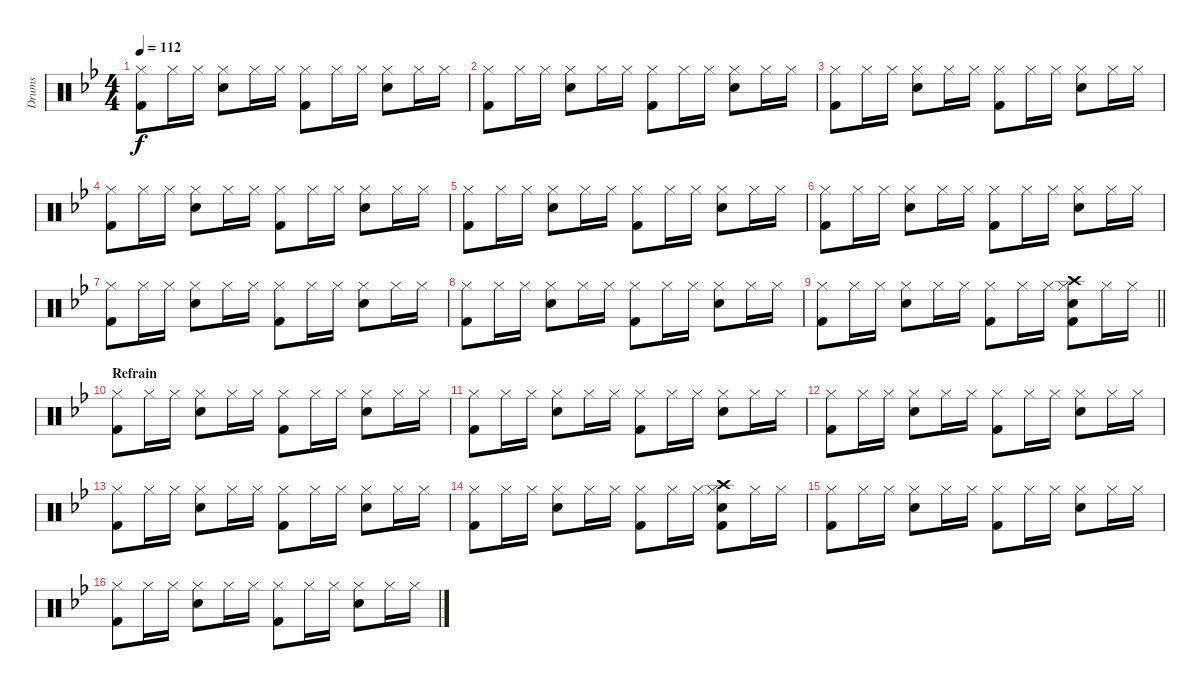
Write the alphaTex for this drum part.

\track ("Drums" "Drums") {instrument percussion}
\staff {score}
\articulation defaults
\ts (4 4)
\tempo 112
\clef neutral
\ks bb
("Hi-Hat (closed)" "Kick (hit) 2").8{dy f} "Hi-Hat (closed)".16 "Hi-Hat (closed)".16 ("Snare (hit) 2" "Hi-Hat (closed)").8 "Hi-Hat (closed)".16 "Hi-Hat (closed)".16 ("Hi-Hat (closed)" "Kick (hit) 2").8 "Hi-Hat (closed)".16 "Hi-Hat (closed)".16 ("Snare (hit) 2" "Hi-Hat (closed)").8 "Hi-Hat (closed)".16 "Hi-Hat (closed)".16 |
("Hi-Hat (closed)" "Kick (hit) 2").8 "Hi-Hat (closed)".16 "Hi-Hat (closed)".16 ("Snare (hit) 2" "Hi-Hat (closed)").8 "Hi-Hat (closed)".16 "Hi-Hat (closed)".16 ("Hi-Hat (closed)" "Kick (hit) 2").8 "Hi-Hat (closed)".16 "Hi-Hat (closed)".16 ("Snare (hit) 2" "Hi-Hat (closed)").8 "Hi-Hat (closed)".16 "Hi-Hat (closed)".16 |
("Hi-Hat (closed)" "Kick (hit) 2").8 "Hi-Hat (closed)".16 "Hi-Hat (closed)".16 ("Snare (hit) 2" "Hi-Hat (closed)").8 "Hi-Hat (closed)".16 "Hi-Hat (closed)".16 ("Hi-Hat (closed)" "Kick (hit) 2").8 "Hi-Hat (closed)".16 "Hi-Hat (closed)".16 ("Snare (hit) 2" "Hi-Hat (closed)").8 "Hi-Hat (closed)".16 "Hi-Hat (closed)".16 |
("Hi-Hat (closed)" "Kick (hit) 2").8 "Hi-Hat (closed)".16 "Hi-Hat (closed)".16 ("Snare (hit) 2" "Hi-Hat (closed)").8 "Hi-Hat (closed)".16 "Hi-Hat (closed)".16 ("Hi-Hat (closed)" "Kick (hit) 2").8 "Hi-Hat (closed)".16 "Hi-Hat (closed)".16 ("Snare (hit) 2" "Hi-Hat (closed)").8 "Hi-Hat (closed)".16 "Hi-Hat (closed)".16 |
("Hi-Hat (closed)" "Kick (hit) 2").8 "Hi-Hat (closed)".16 "Hi-Hat (closed)".16 ("Snare (hit) 2" "Hi-Hat (closed)").8 "Hi-Hat (closed)".16 "Hi-Hat (closed)".16 ("Hi-Hat (closed)" "Kick (hit) 2").8 "Hi-Hat (closed)".16 "Hi-Hat (closed)".16 ("Snare (hit) 2" "Hi-Hat (closed)").8 "Hi-Hat (closed)".16 "Hi-Hat (closed)".16 |
("Hi-Hat (closed)" "Kick (hit) 2").8 "Hi-Hat (closed)".16 "Hi-Hat (closed)".16 ("Snare (hit) 2" "Hi-Hat (closed)").8 "Hi-Hat (closed)".16 "Hi-Hat (closed)".16 ("Hi-Hat (closed)" "Kick (hit) 2").8 "Hi-Hat (closed)".16 "Hi-Hat (closed)".16 ("Snare (hit) 2" "Hi-Hat (closed)").8 "Hi-Hat (closed)".16 "Hi-Hat (closed)".16 |
("Hi-Hat (closed)" "Kick (hit) 2").8 "Hi-Hat (closed)".16 "Hi-Hat (closed)".16 ("Snare (hit) 2" "Hi-Hat (closed)").8 "Hi-Hat (closed)".16 "Hi-Hat (closed)".16 ("Hi-Hat (closed)" "Kick (hit) 2").8 "Hi-Hat (closed)".16 "Hi-Hat (closed)".16 ("Snare (hit) 2" "Hi-Hat (closed)").8 "Hi-Hat (closed)".16 "Hi-Hat (closed)".16 |
("Hi-Hat (closed)" "Kick (hit) 2").8 "Hi-Hat (closed)".16 "Hi-Hat (closed)".16 ("Snare (hit) 2" "Hi-Hat (closed)").8 "Hi-Hat (closed)".16 "Hi-Hat (closed)".16 ("Hi-Hat (closed)" "Kick (hit) 2").8 "Hi-Hat (closed)".16 "Hi-Hat (closed)".16 ("Snare (hit) 2" "Hi-Hat (closed)").8 "Hi-Hat (closed)".16 "Hi-Hat (closed)".16 |
\barLineRight lightlight
("Hi-Hat (closed)" "Kick (hit) 2").8 "Hi-Hat (closed)".16 "Hi-Hat (closed)".16 ("Snare (hit) 2" "Hi-Hat (closed)").8 "Hi-Hat (closed)".16 "Hi-Hat (closed)".16 ("Hi-Hat (closed)" "Kick (hit) 2").8 "Hi-Hat (closed)".16 "Hi-Hat (closed)".16 ("Snare (hit) 2" "Hi-Hat (closed)" "Crash high (hit)" "Kick (hit) 2").8 "Hi-Hat (closed)".16 "Hi-Hat (closed)".16 |
\section ("" "Refrain")
("Hi-Hat (closed)" "Kick (hit) 2").8 "Hi-Hat (closed)".16 "Hi-Hat (closed)".16 ("Snare (hit) 2" "Hi-Hat (closed)").8 "Hi-Hat (closed)".16 "Hi-Hat (closed)".16 ("Hi-Hat (closed)" "Kick (hit) 2").8 "Hi-Hat (closed)".16 "Hi-Hat (closed)".16 ("Snare (hit) 2" "Hi-Hat (closed)").8 "Hi-Hat (closed)".16 "Hi-Hat (closed)".16 |
("Hi-Hat (closed)" "Kick (hit) 2").8 "Hi-Hat (closed)".16 "Hi-Hat (closed)".16 ("Snare (hit) 2" "Hi-Hat (closed)").8 "Hi-Hat (closed)".16 "Hi-Hat (closed)".16 ("Hi-Hat (closed)" "Kick (hit) 2").8 "Hi-Hat (closed)".16 "Hi-Hat (closed)".16 ("Snare (hit) 2" "Hi-Hat (closed)").8 "Hi-Hat (closed)".16 "Hi-Hat (closed)".16 |
("Hi-Hat (closed)" "Kick (hit) 2").8 "Hi-Hat (closed)".16 "Hi-Hat (closed)".16 ("Snare (hit) 2" "Hi-Hat (closed)").8 "Hi-Hat (closed)".16 "Hi-Hat (closed)".16 ("Hi-Hat (closed)" "Kick (hit) 2").8 "Hi-Hat (closed)".16 "Hi-Hat (closed)".16 ("Snare (hit) 2" "Hi-Hat (closed)").8 "Hi-Hat (closed)".16 "Hi-Hat (closed)".16 |
("Hi-Hat (closed)" "Kick (hit) 2").8 "Hi-Hat (closed)".16 "Hi-Hat (closed)".16 ("Snare (hit) 2" "Hi-Hat (closed)").8 "Hi-Hat (closed)".16 "Hi-Hat (closed)".16 ("Hi-Hat (closed)" "Kick (hit) 2").8 "Hi-Hat (closed)".16 "Hi-Hat (closed)".16 ("Snare (hit) 2" "Hi-Hat (closed)").8 "Hi-Hat (closed)".16 "Hi-Hat (closed)".16 |
("Hi-Hat (closed)" "Kick (hit) 2").8 "Hi-Hat (closed)".16 "Hi-Hat (closed)".16 ("Snare (hit) 2" "Hi-Hat (closed)").8 "Hi-Hat (closed)".16 "Hi-Hat (closed)".16 ("Hi-Hat (closed)" "Kick (hit) 2").8 "Hi-Hat (closed)".16 "Hi-Hat (closed)".16 ("Snare (hit) 2" "Hi-Hat (closed)" "Crash high (hit)" "Kick (hit) 2").8 "Hi-Hat (closed)".16 "Hi-Hat (closed)".16 |
("Hi-Hat (closed)" "Kick (hit) 2").8 "Hi-Hat (closed)".16 "Hi-Hat (closed)".16 ("Snare (hit) 2" "Hi-Hat (closed)").8 "Hi-Hat (closed)".16 "Hi-Hat (closed)".16 ("Hi-Hat (closed)" "Kick (hit) 2").8 "Hi-Hat (closed)".16 "Hi-Hat (closed)".16 ("Snare (hit) 2" "Hi-Hat (closed)").8 "Hi-Hat (closed)".16 "Hi-Hat (closed)".16 |
("Hi-Hat (closed)" "Kick (hit) 2").8 "Hi-Hat (closed)".16 "Hi-Hat (closed)".16 ("Snare (hit) 2" "Hi-Hat (closed)").8 "Hi-Hat (closed)".16 "Hi-Hat (closed)".16 ("Hi-Hat (closed)" "Kick (hit) 2").8 "Hi-Hat (closed)".16 "Hi-Hat (closed)".16 ("Snare (hit) 2" "Hi-Hat (closed)").8 "Hi-Hat (closed)".16 "Hi-Hat (closed)".16
